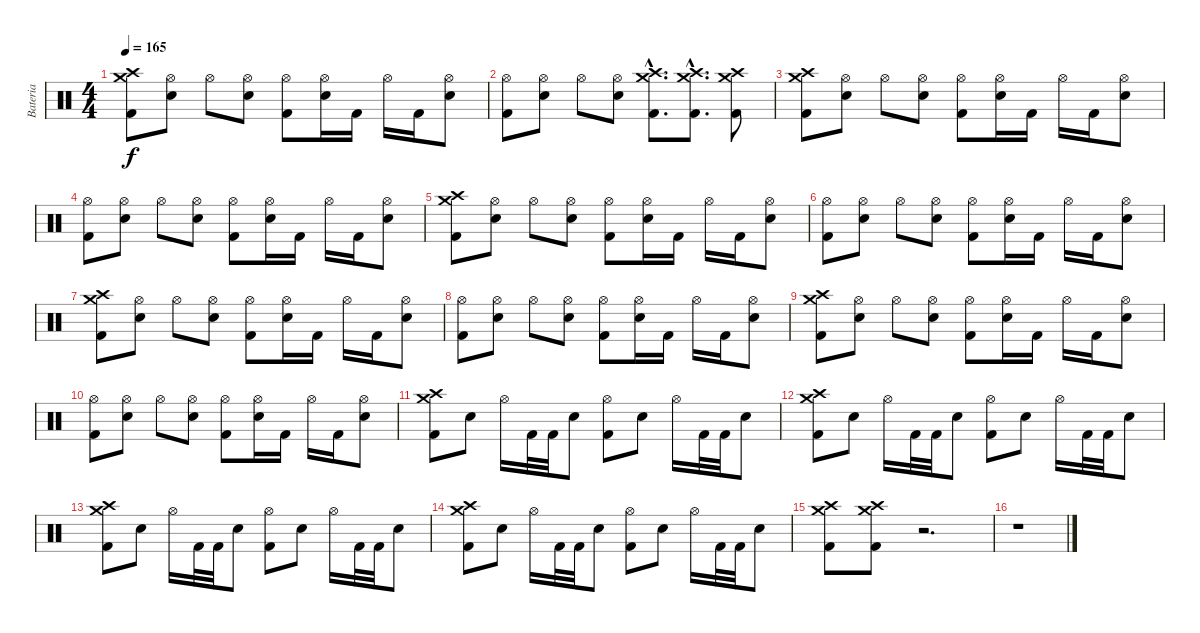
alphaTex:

\track ("Bateria" "Bateria") {instrument percussion}
\staff {score}
\articulation defaults
\ts (4 4)
\tempo 165
\clef neutral
\ks c
("Kick (hit) 2" "Crash medium (hit)" "Crash high (hit)").8{dy f} ("Hi-Hat (open)" "Electric Snare (hit)").8 "Hi-Hat (open)".8 ("Hi-Hat (open)" "Electric Snare (hit)").8 ("Kick (hit) 2" "Hi-Hat (open)").8 ("Hi-Hat (open)" "Electric Snare (hit)").16 "Kick (hit) 2".16 "Hi-Hat (open)".16 "Kick (hit) 2".16 ("Hi-Hat (open)" "Electric Snare (hit)").8 |
("Kick (hit) 2" "Hi-Hat (open)").8 ("Hi-Hat (open)" "Electric Snare (hit)").8 "Hi-Hat (open)".8 ("Hi-Hat (open)" "Electric Snare (hit)").8 ("Kick (hit) 2"{hac} "Crash medium (hit)"{hac} "Crash high (hit)"{hac}).8{d} ("Kick (hit) 2"{hac} "Crash medium (hit)"{hac} "Crash high (hit)"{hac}).8{d} ("Kick (hit) 2" "Crash medium (hit)" "Crash high (hit)").8 |
("Kick (hit) 2" "Crash medium (hit)" "Crash high (hit)").8 ("Hi-Hat (open)" "Electric Snare (hit)").8 "Hi-Hat (open)".8 ("Hi-Hat (open)" "Electric Snare (hit)").8 ("Kick (hit) 2" "Hi-Hat (open)").8 ("Hi-Hat (open)" "Electric Snare (hit)").16 "Kick (hit) 2".16 "Hi-Hat (open)".16 "Kick (hit) 2".16 ("Hi-Hat (open)" "Electric Snare (hit)").8 |
("Kick (hit) 2" "Hi-Hat (open)").8 ("Hi-Hat (open)" "Electric Snare (hit)").8 "Hi-Hat (open)".8 ("Hi-Hat (open)" "Electric Snare (hit)").8 ("Kick (hit) 2" "Hi-Hat (open)").8 ("Hi-Hat (open)" "Electric Snare (hit)").16 "Kick (hit) 2".16 "Hi-Hat (open)".16 "Kick (hit) 2".16 ("Hi-Hat (open)" "Electric Snare (hit)").8 |
("Kick (hit) 2" "Crash medium (hit)" "Crash high (hit)").8 ("Hi-Hat (open)" "Electric Snare (hit)").8 "Hi-Hat (open)".8 ("Hi-Hat (open)" "Electric Snare (hit)").8 ("Kick (hit) 2" "Hi-Hat (open)").8 ("Hi-Hat (open)" "Electric Snare (hit)").16 "Kick (hit) 2".16 "Hi-Hat (open)".16 "Kick (hit) 2".16 ("Hi-Hat (open)" "Electric Snare (hit)").8 |
("Kick (hit) 2" "Hi-Hat (open)").8 ("Hi-Hat (open)" "Electric Snare (hit)").8 "Hi-Hat (open)".8 ("Hi-Hat (open)" "Electric Snare (hit)").8 ("Kick (hit) 2" "Hi-Hat (open)").8 ("Hi-Hat (open)" "Electric Snare (hit)").16 "Kick (hit) 2".16 "Hi-Hat (open)".16 "Kick (hit) 2".16 ("Hi-Hat (open)" "Electric Snare (hit)").8 |
("Kick (hit) 2" "Crash medium (hit)" "Crash high (hit)").8 ("Hi-Hat (open)" "Electric Snare (hit)").8 "Hi-Hat (open)".8 ("Hi-Hat (open)" "Electric Snare (hit)").8 ("Kick (hit) 2" "Hi-Hat (open)").8 ("Hi-Hat (open)" "Electric Snare (hit)").16 "Kick (hit) 2".16 "Hi-Hat (open)".16 "Kick (hit) 2".16 ("Hi-Hat (open)" "Electric Snare (hit)").8 |
("Kick (hit) 2" "Hi-Hat (open)").8 ("Hi-Hat (open)" "Electric Snare (hit)").8 "Hi-Hat (open)".8 ("Hi-Hat (open)" "Electric Snare (hit)").8 ("Kick (hit) 2" "Hi-Hat (open)").8 ("Hi-Hat (open)" "Electric Snare (hit)").16 "Kick (hit) 2".16 "Hi-Hat (open)".16 "Kick (hit) 2".16 ("Hi-Hat (open)" "Electric Snare (hit)").8 |
("Kick (hit) 2" "Crash medium (hit)" "Crash high (hit)").8 ("Hi-Hat (open)" "Electric Snare (hit)").8 "Hi-Hat (open)".8 ("Hi-Hat (open)" "Electric Snare (hit)").8 ("Kick (hit) 2" "Hi-Hat (open)").8 ("Hi-Hat (open)" "Electric Snare (hit)").16 "Kick (hit) 2".16 "Hi-Hat (open)".16 "Kick (hit) 2".16 ("Hi-Hat (open)" "Electric Snare (hit)").8 |
("Kick (hit) 2" "Hi-Hat (open)").8 ("Hi-Hat (open)" "Electric Snare (hit)").8 "Hi-Hat (open)".8 ("Hi-Hat (open)" "Electric Snare (hit)").8 ("Kick (hit) 2" "Hi-Hat (open)").8 ("Hi-Hat (open)" "Electric Snare (hit)").16 "Kick (hit) 2".16 "Hi-Hat (open)".16 "Kick (hit) 2".16 ("Hi-Hat (open)" "Electric Snare (hit)").8 |
("Kick (hit) 2" "Crash medium (hit)" "Crash high (hit)").8 "Electric Snare (hit)".8 "Hi-Hat (open)".16 "Kick (hit) 2".32 "Kick (hit) 2".32 "Electric Snare (hit)".8 ("Kick (hit) 2" "Hi-Hat (open)").8 "Electric Snare (hit)".8 "Hi-Hat (open)".16 "Kick (hit) 2".32 "Kick (hit) 2".32 "Electric Snare (hit)".8 |
("Kick (hit) 2" "Crash medium (hit)" "Crash high (hit)").8 "Electric Snare (hit)".8 "Hi-Hat (open)".16 "Kick (hit) 2".32 "Kick (hit) 2".32 "Electric Snare (hit)".8 ("Kick (hit) 2" "Hi-Hat (open)").8 "Electric Snare (hit)".8 "Hi-Hat (open)".16 "Kick (hit) 2".32 "Kick (hit) 2".32 "Electric Snare (hit)".8 |
("Kick (hit) 2" "Crash medium (hit)" "Crash high (hit)").8 "Electric Snare (hit)".8 "Hi-Hat (open)".16 "Kick (hit) 2".32 "Kick (hit) 2".32 "Electric Snare (hit)".8 ("Kick (hit) 2" "Hi-Hat (open)").8 "Electric Snare (hit)".8 "Hi-Hat (open)".16 "Kick (hit) 2".32 "Kick (hit) 2".32 "Electric Snare (hit)".8 |
("Kick (hit) 2" "Crash medium (hit)" "Crash high (hit)").8 "Electric Snare (hit)".8 "Hi-Hat (open)".16 "Kick (hit) 2".32 "Kick (hit) 2".32 "Electric Snare (hit)".8 ("Kick (hit) 2" "Hi-Hat (open)").8 "Electric Snare (hit)".8 "Hi-Hat (open)".16 "Kick (hit) 2".32 "Kick (hit) 2".32 "Electric Snare (hit)".8 |
("Kick (hit) 2" "Crash medium (hit)" "Crash high (hit)").8 ("Kick (hit) 2" "Crash medium (hit)" "Crash high (hit)").8 r.2{d} |
r.1
